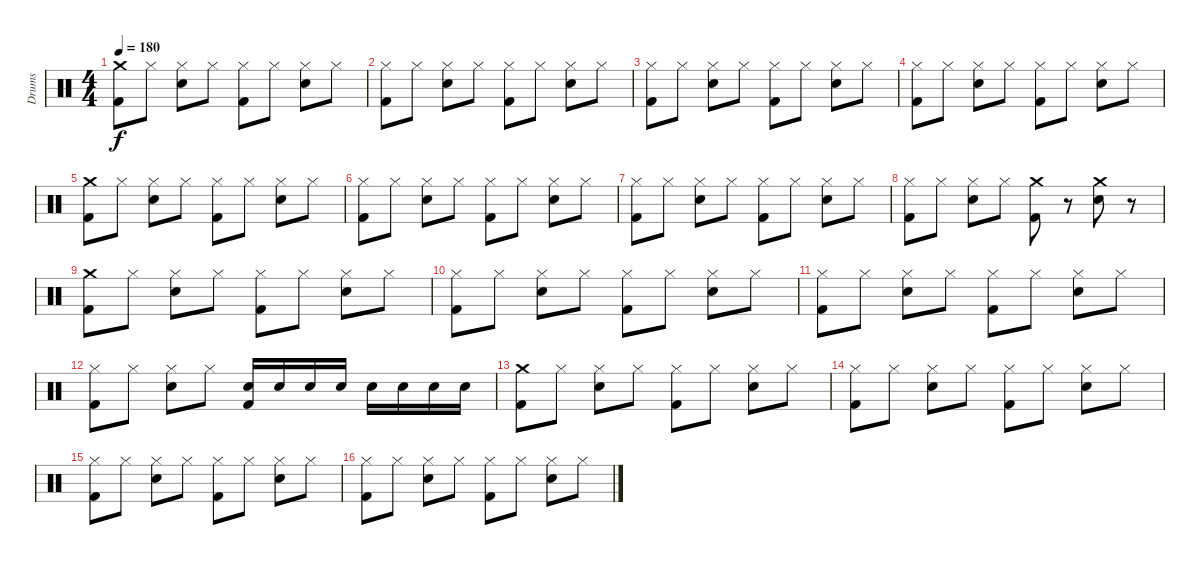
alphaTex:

\track ("Drums" "Drums") {instrument percussion}
\staff {score}
\articulation defaults
\ts (4 4)
\tempo 180
\clef neutral
\ks c
("Crash medium (hit)" "Kick (hit) 2").8{dy f} "Hi-Hat (closed)".8 ("Hi-Hat (closed)" "Electric Snare (hit)").8 "Hi-Hat (closed)".8 ("Hi-Hat (closed)" "Kick (hit) 2").8 "Hi-Hat (closed)".8 ("Hi-Hat (closed)" "Electric Snare (hit)").8 "Hi-Hat (closed)".8 |
("Hi-Hat (closed)" "Kick (hit) 2").8 "Hi-Hat (closed)".8 ("Hi-Hat (closed)" "Electric Snare (hit)").8 "Hi-Hat (closed)".8 ("Hi-Hat (closed)" "Kick (hit) 2").8 "Hi-Hat (closed)".8 ("Hi-Hat (closed)" "Electric Snare (hit)").8 "Hi-Hat (closed)".8 |
("Hi-Hat (closed)" "Kick (hit) 2").8 "Hi-Hat (closed)".8 ("Hi-Hat (closed)" "Electric Snare (hit)").8 "Hi-Hat (closed)".8 ("Hi-Hat (closed)" "Kick (hit) 2").8 "Hi-Hat (closed)".8 ("Hi-Hat (closed)" "Electric Snare (hit)").8 "Hi-Hat (closed)".8 |
("Hi-Hat (closed)" "Kick (hit) 2").8 "Hi-Hat (closed)".8 ("Hi-Hat (closed)" "Electric Snare (hit)").8 "Hi-Hat (closed)".8 ("Hi-Hat (closed)" "Kick (hit) 2").8 "Hi-Hat (closed)".8 ("Hi-Hat (closed)" "Electric Snare (hit)").8 "Hi-Hat (closed)".8 |
("Crash medium (hit)" "Kick (hit) 2").8 "Hi-Hat (closed)".8 ("Hi-Hat (closed)" "Electric Snare (hit)").8 "Hi-Hat (closed)".8 ("Hi-Hat (closed)" "Kick (hit) 2").8 "Hi-Hat (closed)".8 ("Hi-Hat (closed)" "Electric Snare (hit)").8 "Hi-Hat (closed)".8 |
("Hi-Hat (closed)" "Kick (hit) 2").8 "Hi-Hat (closed)".8 ("Hi-Hat (closed)" "Electric Snare (hit)").8 "Hi-Hat (closed)".8 ("Hi-Hat (closed)" "Kick (hit) 2").8 "Hi-Hat (closed)".8 ("Hi-Hat (closed)" "Electric Snare (hit)").8 "Hi-Hat (closed)".8 |
("Hi-Hat (closed)" "Kick (hit) 2").8 "Hi-Hat (closed)".8 ("Hi-Hat (closed)" "Electric Snare (hit)").8 "Hi-Hat (closed)".8 ("Hi-Hat (closed)" "Kick (hit) 2").8 "Hi-Hat (closed)".8 ("Hi-Hat (closed)" "Electric Snare (hit)").8 "Hi-Hat (closed)".8 |
("Hi-Hat (closed)" "Kick (hit) 2").8 "Hi-Hat (closed)".8 ("Hi-Hat (closed)" "Electric Snare (hit)").8 "Hi-Hat (closed)".8 ("Crash medium (hit)" "Kick (hit) 2").8 r.8 ("Crash medium (hit)" "Electric Snare (hit)").8 r.8 |
("Crash medium (hit)" "Kick (hit) 2").8 "Hi-Hat (closed)".8 ("Hi-Hat (closed)" "Electric Snare (hit)").8 "Hi-Hat (closed)".8 ("Hi-Hat (closed)" "Kick (hit) 2").8 "Hi-Hat (closed)".8 ("Hi-Hat (closed)" "Electric Snare (hit)").8 "Hi-Hat (closed)".8 |
("Hi-Hat (closed)" "Kick (hit) 2").8 "Hi-Hat (closed)".8 ("Hi-Hat (closed)" "Electric Snare (hit)").8 "Hi-Hat (closed)".8 ("Hi-Hat (closed)" "Kick (hit) 2").8 "Hi-Hat (closed)".8 ("Hi-Hat (closed)" "Electric Snare (hit)").8 "Hi-Hat (closed)".8 |
("Hi-Hat (closed)" "Kick (hit) 2").8 "Hi-Hat (closed)".8 ("Hi-Hat (closed)" "Electric Snare (hit)").8 "Hi-Hat (closed)".8 ("Hi-Hat (closed)" "Kick (hit) 2").8 "Hi-Hat (closed)".8 ("Hi-Hat (closed)" "Electric Snare (hit)").8 "Hi-Hat (closed)".8 |
("Hi-Hat (closed)" "Kick (hit) 2").8 "Hi-Hat (closed)".8 ("Hi-Hat (closed)" "Electric Snare (hit)").8 "Hi-Hat (closed)".8 ("Electric Snare (hit)" "Kick (hit) 2").16 "Electric Snare (hit)".16 "Electric Snare (hit)".16 "Electric Snare (hit)".16 "Electric Snare (hit)".16 "Electric Snare (hit)".16 "Electric Snare (hit)".16 "Electric Snare (hit)".16 |
("Crash medium (hit)" "Kick (hit) 2").8 "Hi-Hat (closed)".8 ("Hi-Hat (closed)" "Electric Snare (hit)").8 "Hi-Hat (closed)".8 ("Hi-Hat (closed)" "Kick (hit) 2").8 "Hi-Hat (closed)".8 ("Hi-Hat (closed)" "Electric Snare (hit)").8 "Hi-Hat (closed)".8 |
("Hi-Hat (closed)" "Kick (hit) 2").8 "Hi-Hat (closed)".8 ("Hi-Hat (closed)" "Electric Snare (hit)").8 "Hi-Hat (closed)".8 ("Hi-Hat (closed)" "Kick (hit) 2").8 "Hi-Hat (closed)".8 ("Hi-Hat (closed)" "Electric Snare (hit)").8 "Hi-Hat (closed)".8 |
("Hi-Hat (closed)" "Kick (hit) 2").8 "Hi-Hat (closed)".8 ("Hi-Hat (closed)" "Electric Snare (hit)").8 "Hi-Hat (closed)".8 ("Hi-Hat (closed)" "Kick (hit) 2").8 "Hi-Hat (closed)".8 ("Hi-Hat (closed)" "Electric Snare (hit)").8 "Hi-Hat (closed)".8 |
("Hi-Hat (closed)" "Kick (hit) 2").8 "Hi-Hat (closed)".8 ("Hi-Hat (closed)" "Electric Snare (hit)").8 "Hi-Hat (closed)".8 ("Hi-Hat (closed)" "Kick (hit) 2").8 "Hi-Hat (closed)".8 ("Hi-Hat (closed)" "Electric Snare (hit)").8 "Hi-Hat (closed)".8
